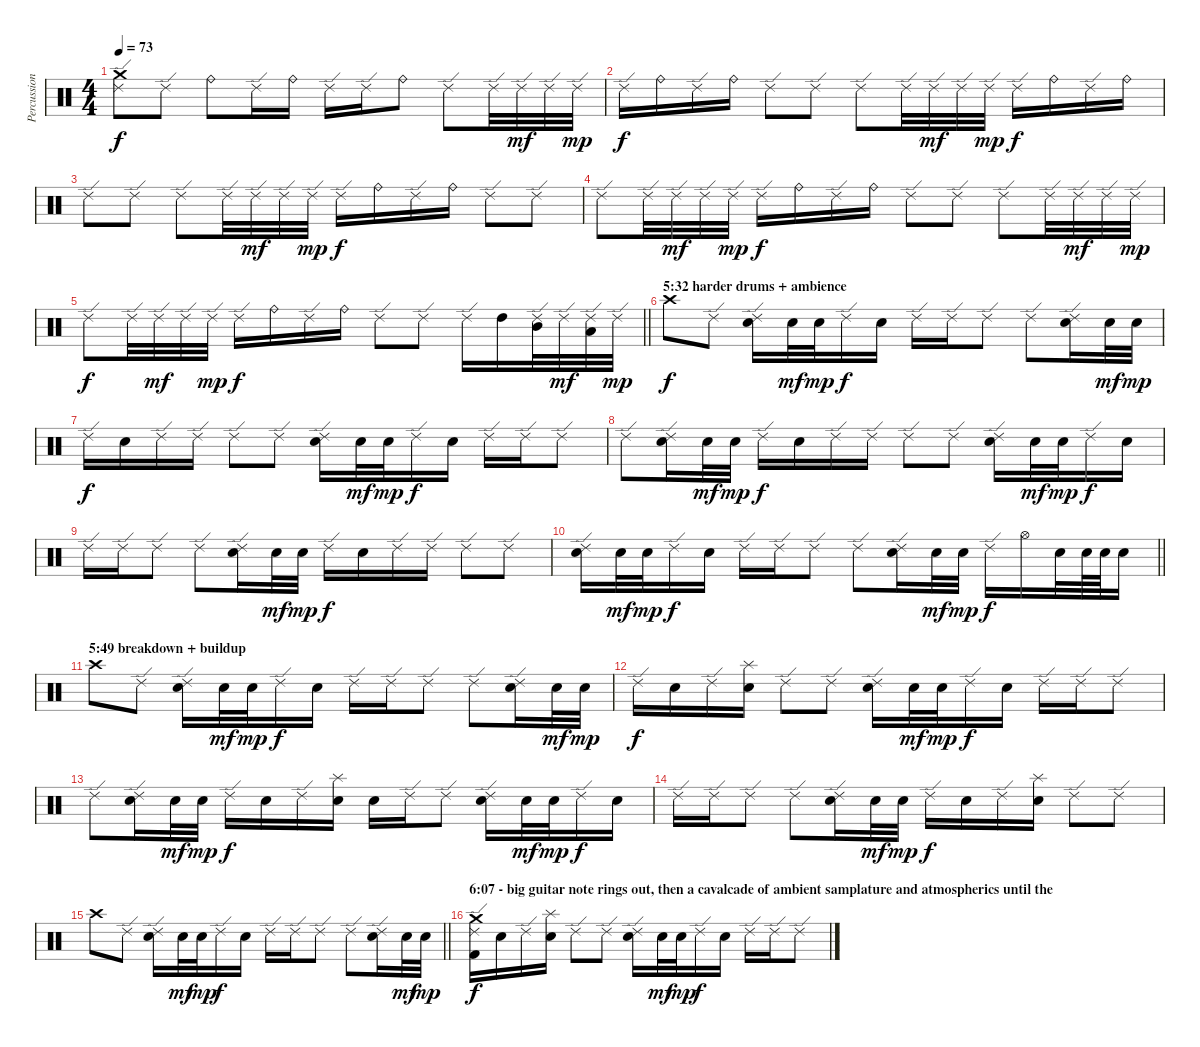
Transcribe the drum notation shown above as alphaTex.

\track ("Percussion" "Percussion") {instrument percussion}
\staff {score}
\articulation defaults
\ts (4 4)
\tempo 73
\clef neutral
\ks c
("Crash medium (hit)" "Ride (edge) 2").8{dy f} "Ride (edge) 2".8 "Ride (bell)".8 "Ride (edge) 2".16 "Ride (bell)".16 "Ride (edge) 2".16 "Ride (edge) 2".16 "Ride (bell)".8 "Ride (edge) 2".8 "Ride (edge) 2".32 "Ride (edge) 2".32{dy mf} "Ride (edge) 2".32 "Ride (edge) 2".32{dy mp} |
"Ride (edge) 2".16{dy f} "Ride (bell)".16 "Ride (edge) 2".16 "Ride (bell)".16 "Ride (edge) 2".8 "Ride (edge) 2".8 "Ride (edge) 2".8 "Ride (edge) 2".32 "Ride (edge) 2".32{dy mf} "Ride (edge) 2".32 "Ride (edge) 2".32{dy mp} "Ride (edge) 2".16{dy f} "Ride (bell)".16 "Ride (edge) 2".16 "Ride (bell)".16 |
"Ride (edge) 2".8 "Ride (edge) 2".8 "Ride (edge) 2".8 "Ride (edge) 2".32 "Ride (edge) 2".32{dy mf} "Ride (edge) 2".32 "Ride (edge) 2".32{dy mp} "Ride (edge) 2".16{dy f} "Ride (bell)".16 "Ride (edge) 2".16 "Ride (bell)".16 "Ride (edge) 2".8 "Ride (edge) 2".8 |
"Ride (edge) 2".8 "Ride (edge) 2".32 "Ride (edge) 2".32{dy mf} "Ride (edge) 2".32 "Ride (edge) 2".32{dy mp} "Ride (edge) 2".16{dy f} "Ride (bell)".16 "Ride (edge) 2".16 "Ride (bell)".16 "Ride (edge) 2".8 "Ride (edge) 2".8 "Ride (edge) 2".8 "Ride (edge) 2".32 "Ride (edge) 2".32{dy mf} "Ride (edge) 2".32 "Ride (edge) 2".32{dy mp} |
\barLineRight lightlight "Ride (edge) 2".8{dy f} "Ride (edge) 2".32 "Ride (edge) 2".32{dy mf} "Ride (edge) 2".32 "Ride (edge) 2".32{dy mp} "Ride (edge) 2".16{dy f} "Ride (bell)".16 "Ride (edge) 2".16 "Ride (bell)".16 "Ride (edge) 2".8 "Ride (edge) 2".8 "Ride (edge) 2".16 "High Tom (hit)".16
("Mid Tom (hit)" "Ride (edge) 2").32 "Ride (edge) 2".32{dy mf} ("Low Tom (hit)" "Ride (edge) 2").32 "Ride (edge) 2".32{dy mp} |
\section ("" "5:32 harder drums + ambience")
"Crash high (hit)".8{dy f} "Ride (edge) 2".8 ("Ride (edge) 2" "Electric Snare (hit)").16 "Electric Snare (hit)".32{dy mf} "Electric Snare (hit)".32{dy mp} "Ride (edge) 2".16{dy f} "Electric Snare (hit)".16 "Ride (edge) 2".16 "Ride (edge) 2".16 "Ride (edge) 2".8 "Ride (edge) 2".8 ("Ride (edge) 2" "Electric Snare (hit)").16 "Electric Snare (hit)".32{dy mf} "Electric Snare (hit)".32{dy mp} |
"Ride (edge) 2".16{dy f} "Electric Snare (hit)".16 "Ride (edge) 2".16 "Ride (edge) 2".16 "Ride (edge) 2".8 "Ride (edge) 2".8 ("Ride (edge) 2" "Electric Snare (hit)").16 "Electric Snare (hit)".32{dy mf} "Electric Snare (hit)".32{dy mp} "Ride (edge) 2".16{dy f} "Electric Snare (hit)".16 "Ride (edge) 2".16 "Ride (edge) 2".16 "Ride (edge) 2".8 |
"Ride (edge) 2".8 ("Ride (edge) 2" "Electric Snare (hit)").16 "Electric Snare (hit)".32{dy mf} "Electric Snare (hit)".32{dy mp} "Ride (edge) 2".16{dy f} "Electric Snare (hit)".16 "Ride (edge) 2".16 "Ride (edge) 2".16 "Ride (edge) 2".8 "Ride (edge) 2".8 ("Ride (edge) 2" "Electric Snare (hit)").16 "Electric Snare (hit)".32{dy mf} "Electric Snare (hit)".32{dy mp} "Ride (edge) 2".16{dy f} "Electric Snare (hit)".16 |
"Ride (edge) 2".16 "Ride (edge) 2".16 "Ride (edge) 2".8 "Ride (edge) 2".8 ("Ride (edge) 2" "Electric Snare (hit)").16 "Electric Snare (hit)".32{dy mf} "Electric Snare (hit)".32{dy mp} "Ride (edge) 2".16{dy f} "Electric Snare (hit)".16 "Ride (edge) 2".16 "Ride (edge) 2".16 "Ride (edge) 2".8 "Ride (edge) 2".8 |
\barLineRight lightlight
("Ride (edge) 2" "Electric Snare (hit)").16 "Electric Snare (hit)".32{dy mf} "Electric Snare (hit)".32{dy mp} "Ride (edge) 2".16{dy f} "Electric Snare (hit)".16 "Ride (edge) 2".16 "Ride (edge) 2".16 "Ride (edge) 2".8 "Ride (edge) 2".8 ("Ride (edge) 2" "Electric Snare (hit)").16 "Electric Snare (hit)".32{dy mf} "Electric Snare (hit)".32{dy mp} "Ride (edge) 2".16{dy f} "Hi-Hat (open)".16 "Electric Snare (hit)".32 "Electric Snare (hit)".64 "Electric Snare (hit)".64 "Electric Snare (hit)".16 |
\section ("" "5:49 breakdown + buildup")
"Crash high (hit)".8{volume 12} "Ride (edge) 2".8 ("Ride (edge) 2" "Electric Snare (hit)").16 "Electric Snare (hit)".32{dy mf} "Electric Snare (hit)".32{dy mp} "Ride (edge) 2".16{dy f} "Electric Snare (hit)".16 "Ride (edge) 2".16 "Ride (edge) 2".16 "Ride (edge) 2".8 "Ride (edge) 2".8 ("Ride (edge) 2" "Electric Snare (hit)").16 "Electric Snare (hit)".32{dy mf} "Electric Snare (hit)".32{dy mp} |
"Ride (edge) 2".16{dy f} "Electric Snare (hit)".16 "Ride (edge) 2".16 ("Splash (hit)" "Electric Snare (hit)").16 "Ride (edge) 2".8 "Ride (edge) 2".8 ("Ride (edge) 2" "Electric Snare (hit)").16 "Electric Snare (hit)".32{dy mf} "Electric Snare (hit)".32{dy mp} "Ride (edge) 2".16{dy f} "Electric Snare (hit)".16 "Ride (edge) 2".16 "Ride (edge) 2".16 "Ride (edge) 2".8 |
"Ride (edge) 2".8 ("Ride (edge) 2" "Electric Snare (hit)").16 "Electric Snare (hit)".32{dy mf} "Electric Snare (hit)".32{dy mp} "Ride (edge) 2".16{dy f} "Electric Snare (hit)".16 "Ride (edge) 2".16 ("Splash (hit)" "Electric Snare (hit)").16 "Electric Snare (hit)".16 "Ride (edge) 2".16 "Ride (edge) 2".8 ("Ride (edge) 2" "Electric Snare (hit)").16 "Electric Snare (hit)".32{dy mf} "Electric Snare (hit)".32{dy mp} "Ride (edge) 2".16{dy f} "Electric Snare (hit)".16 |
"Ride (edge) 2".16 "Ride (edge) 2".16 "Ride (edge) 2".8 "Ride (edge) 2".8 ("Ride (edge) 2" "Electric Snare (hit)").16 "Electric Snare (hit)".32{dy mf} "Electric Snare (hit)".32{dy mp} "Ride (edge) 2".16{dy f} "Electric Snare (hit)".16 "Ride (edge) 2".16 ("Splash (hit)" "Electric Snare (hit)").16 "Ride (edge) 2".8 "Ride (edge) 2".8 |
\barLineRight lightlight "Crash high (hit)".8 "Ride (edge) 2".8
("Ride (edge) 2" "Electric Snare (hit)").16 "Electric Snare (hit)".32{dy mf} "Electric Snare (hit)".32{dy mp} "Ride (edge) 2".16{dy f} "Electric Snare (hit)".16 "Ride (edge) 2".16 "Ride (edge) 2".16 "Ride (edge) 2".8 "Ride (edge) 2".8 ("Ride (edge) 2" "Electric Snare (hit)").16 "Electric Snare (hit)".32{dy mf} "Electric Snare (hit)".32{dy mp} |
\section ("" "6:07 - big guitar note rings out, then a cavalcade of ambient samplature and atmospherics until the ")
("Crash medium (hit)" "Ride (edge) 2" "Kick (hit) 2").16{dy f} "Electric Snare (hit)".16 "Ride (edge) 2".16 ("Splash (hit)" "Electric Snare (hit)").16 "Ride (edge) 2".8 "Ride (edge) 2".8 ("Ride (edge) 2" "Electric Snare (hit)").16 "Electric Snare (hit)".32{dy mf} "Electric Snare (hit)".32{dy mp} "Ride (edge) 2".16{dy f} "Electric Snare (hit)".16 "Ride (edge) 2".16 "Ride (edge) 2".16 "Ride (edge) 2".8
